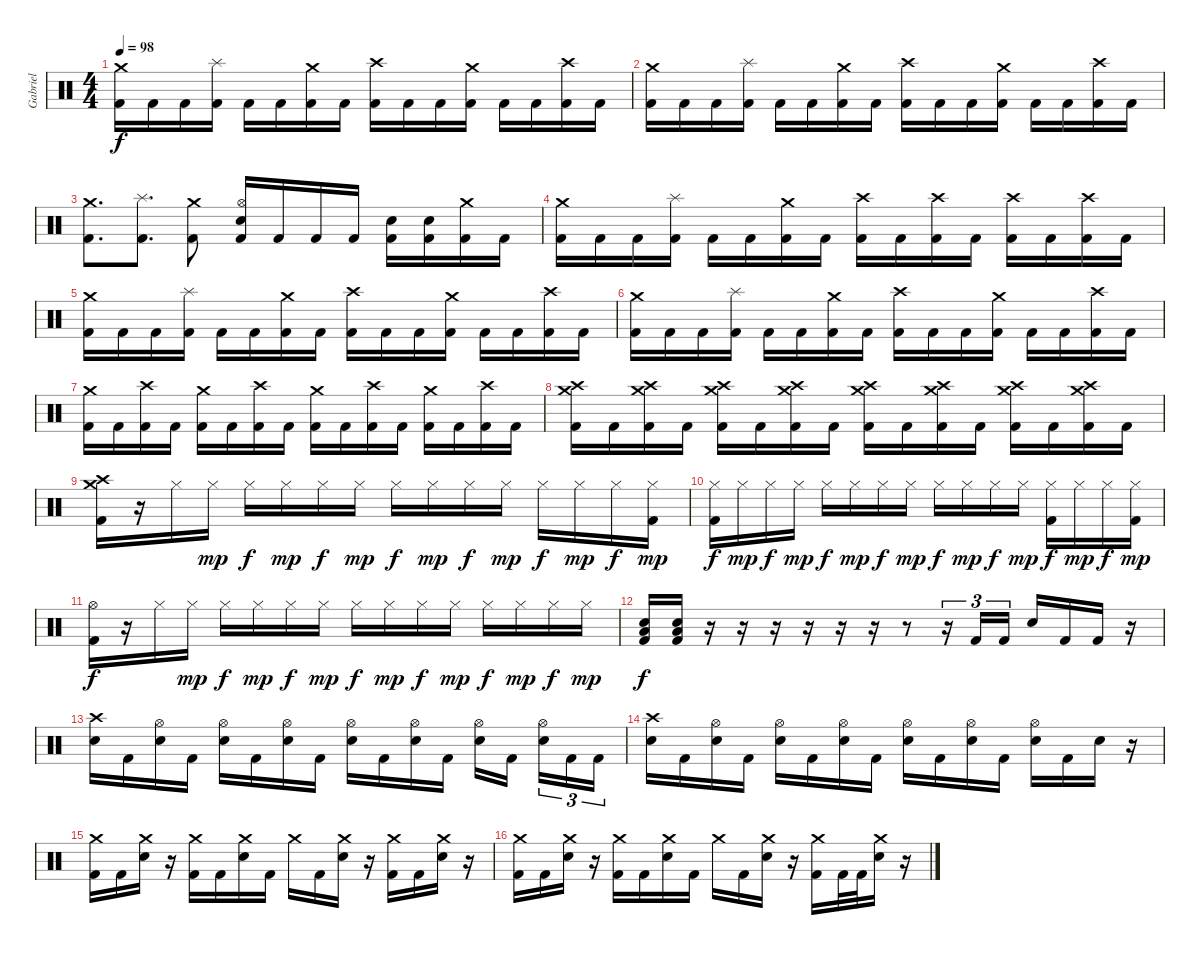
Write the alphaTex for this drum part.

\track ("Gabriel" "Gabriel") {instrument percussion}
\staff {score}
\articulation defaults
\ts (4 4)
\tempo 98
\clef neutral
\ks c
("Crash medium (hit)" "Kick (hit) 2").16{dy f} "Kick (hit) 2".16 "Kick (hit) 2".16 ("Splash (hit)" "Kick (hit) 2").16 "Kick (hit) 2".16 "Kick (hit) 2".16 ("Crash medium (hit)" "Kick (hit) 2").16 "Kick (hit) 2".16 ("Crash high (hit)" "Kick (hit) 2").16 "Kick (hit) 2".16 "Kick (hit) 2".16 ("Crash medium (hit)" "Kick (hit) 2").16 "Kick (hit) 2".16 "Kick (hit) 2".16 ("Crash high (hit)" "Kick (hit) 2").16 "Kick (hit) 2".16 |
("Crash medium (hit)" "Kick (hit) 2").16 "Kick (hit) 2".16 "Kick (hit) 2".16 ("Splash (hit)" "Kick (hit) 2").16 "Kick (hit) 2".16 "Kick (hit) 2".16 ("Crash medium (hit)" "Kick (hit) 2").16 "Kick (hit) 2".16 ("Crash high (hit)" "Kick (hit) 2").16 "Kick (hit) 2".16 "Kick (hit) 2".16 ("Crash medium (hit)" "Kick (hit) 2").16 "Kick (hit) 2".16 "Kick (hit) 2".16 ("Crash high (hit)" "Kick (hit) 2").16 "Kick (hit) 2".16 |
("Crash medium (hit)" "Kick (hit) 2").8{d} ("Splash (hit)" "Kick (hit) 2").8{d} ("Crash medium (hit)" "Kick (hit) 2").8 ("Hi-Hat (open)" "Electric Snare (hit)" "Kick (hit) 2").16 "Kick (hit) 2".16 "Kick (hit) 2".16 "Kick (hit) 2".16 ("Electric Snare (hit)" "Kick (hit) 2").16 ("Electric Snare (hit)" "Kick (hit) 2").16 ("Crash medium (hit)" "Kick (hit) 2").16 "Kick (hit) 2".16 |
("Crash medium (hit)" "Kick (hit) 2").16 "Kick (hit) 2".16 "Kick (hit) 2".16 ("Splash (hit)" "Kick (hit) 2").16 "Kick (hit) 2".16 "Kick (hit) 2".16 ("Crash medium (hit)" "Kick (hit) 2").16 "Kick (hit) 2".16 ("Crash high (hit)" "Kick (hit) 2").16 "Kick (hit) 2".16 ("Crash high (hit)" "Kick (hit) 2").16 "Kick (hit) 2".16 ("Crash high (hit)" "Kick (hit) 2").16 "Kick (hit) 2".16 ("Crash high (hit)" "Kick (hit) 2").16 "Kick (hit) 2".16 |
("Crash medium (hit)" "Kick (hit) 2").16 "Kick (hit) 2".16 "Kick (hit) 2".16 ("Splash (hit)" "Kick (hit) 2").16 "Kick (hit) 2".16 "Kick (hit) 2".16 ("Crash medium (hit)" "Kick (hit) 2").16 "Kick (hit) 2".16 ("Crash high (hit)" "Kick (hit) 2").16 "Kick (hit) 2".16 "Kick (hit) 2".16 ("Crash medium (hit)" "Kick (hit) 2").16 "Kick (hit) 2".16 "Kick (hit) 2".16 ("Crash high (hit)" "Kick (hit) 2").16 "Kick (hit) 2".16 |
("Crash medium (hit)" "Kick (hit) 2").16 "Kick (hit) 2".16 "Kick (hit) 2".16 ("Splash (hit)" "Kick (hit) 2").16 "Kick (hit) 2".16 "Kick (hit) 2".16 ("Crash medium (hit)" "Kick (hit) 2").16 "Kick (hit) 2".16 ("Crash high (hit)" "Kick (hit) 2").16 "Kick (hit) 2".16 "Kick (hit) 2".16 ("Crash medium (hit)" "Kick (hit) 2").16 "Kick (hit) 2".16 "Kick (hit) 2".16 ("Crash high (hit)" "Kick (hit) 2").16 "Kick (hit) 2".16 |
("Crash medium (hit)" "Kick (hit) 2").16 "Kick (hit) 2".16 ("Crash high (hit)" "Kick (hit) 2").16 "Kick (hit) 2".16 ("Crash medium (hit)" "Kick (hit) 2").16 "Kick (hit) 2".16 ("Crash high (hit)" "Kick (hit) 2").16 "Kick (hit) 2".16 ("Crash medium (hit)" "Kick (hit) 2").16 "Kick (hit) 2".16 ("Crash high (hit)" "Kick (hit) 2").16 "Kick (hit) 2".16 ("Crash medium (hit)" "Kick (hit) 2").16 "Kick (hit) 2".16 ("Crash high (hit)" "Kick (hit) 2").16 "Kick (hit) 2".16 |
("Crash medium (hit)" "Crash high (hit)" "Kick (hit) 2").16 "Kick (hit) 2".16 ("Crash high (hit)" "Crash medium (hit)" "Kick (hit) 2").16 "Kick (hit) 2".16 ("Crash medium (hit)" "Crash high (hit)" "Kick (hit) 2").16 "Kick (hit) 2".16 ("Crash high (hit)" "Crash medium (hit)" "Kick (hit) 2").16 "Kick (hit) 2".16 ("Crash medium (hit)" "Crash high (hit)" "Kick (hit) 2").16 "Kick (hit) 2".16 ("Crash high (hit)" "Crash medium (hit)" "Kick (hit) 2").16 "Kick (hit) 2".16 ("Crash medium (hit)" "Crash high (hit)" "Kick (hit) 2").16 "Kick (hit) 2".16 ("Crash high (hit)" "Crash medium (hit)" "Kick (hit) 2").16 "Kick (hit) 2".16 |
("Crash high (hit)" "Crash medium (hit)" "Kick (hit) 2").16 r.16 "Hi-Hat (closed)".16 "Hi-Hat (closed)".16{dy mp} "Hi-Hat (closed)".16{dy f} "Hi-Hat (closed)".16{dy mp} "Hi-Hat (closed)".16{dy f} "Hi-Hat (closed)".16{dy mp} "Hi-Hat (closed)".16{dy f} "Hi-Hat (closed)".16{dy mp} "Hi-Hat (closed)".16{dy f} "Hi-Hat (closed)".16{dy mp} "Hi-Hat (closed)".16{dy f} "Hi-Hat (closed)".16{dy mp} "Hi-Hat (closed)".16{dy f} ("Hi-Hat (closed)" "Kick (hit) 2").16{dy mp} |
("Hi-Hat (closed)" "Kick (hit) 2").16{dy f} "Hi-Hat (closed)".16{dy mp} "Hi-Hat (closed)".16{dy f} "Hi-Hat (closed)".16{dy mp} "Hi-Hat (closed)".16{dy f} "Hi-Hat (closed)".16{dy mp} "Hi-Hat (closed)".16{dy f} "Hi-Hat (closed)".16{dy mp} "Hi-Hat (closed)".16{dy f} "Hi-Hat (closed)".16{dy mp} "Hi-Hat (closed)".16{dy f} "Hi-Hat (closed)".16{dy mp} ("Hi-Hat (closed)" "Kick (hit) 2").16{dy f} "Hi-Hat (closed)".16{dy mp} "Hi-Hat (closed)".16{dy f} ("Hi-Hat (closed)" "Kick (hit) 2").16{dy mp} |
("Hi-Hat (open)" "Kick (hit) 2").16{dy f} r.16 "Hi-Hat (closed)".16 "Hi-Hat (closed)".16{dy mp} "Hi-Hat (closed)".16{dy f} "Hi-Hat (closed)".16{dy mp} "Hi-Hat (closed)".16{dy f} "Hi-Hat (closed)".16{dy mp} "Hi-Hat (closed)".16{dy f} "Hi-Hat (closed)".16{dy mp} "Hi-Hat (closed)".16{dy f} "Hi-Hat (closed)".16{dy mp} "Hi-Hat (closed)".16{dy f} "Hi-Hat (closed)".16{dy mp} "Hi-Hat (closed)".16{dy f} "Hi-Hat (closed)".16{dy mp} |
("Low Tom (hit)" "Electric Snare (hit)" "Kick (hit) 2").16{dy f} ("Low Tom (hit)" "Electric Snare (hit)" "Kick (hit) 2").16 r.16 r.16 r.16 r.16 r.16 r.16 r.8 r.16{tu (3 2)} "Kick (hit) 2".16{tu (3 2)} "Kick (hit) 2".16{tu (3 2)} "Electric Snare (hit)".16 "Kick (hit) 2".16 "Kick (hit) 2".16 r.16 |
("Crash high (hit)" "Electric Snare (hit)").16 "Kick (hit) 2".16 ("Hi-Hat (open)" "Electric Snare (hit)").16 "Kick (hit) 2".16 ("Hi-Hat (open)" "Electric Snare (hit)").16 "Kick (hit) 2".16 ("Hi-Hat (open)" "Electric Snare (hit)").16 "Kick (hit) 2".16 ("Hi-Hat (open)" "Electric Snare (hit)").16 "Kick (hit) 2".16 ("Hi-Hat (open)" "Electric Snare (hit)").16 "Kick (hit) 2".16 ("Hi-Hat (open)" "Electric Snare (hit)").16 "Kick (hit) 2".16{beam splitsecondary} ("Hi-Hat (open)" "Electric Snare (hit)").16{tu (3 2)} "Kick (hit) 2".16{tu (3 2)} "Kick (hit) 2".16{tu (3 2)} |
("Crash high (hit)" "Electric Snare (hit)").16 "Kick (hit) 2".16 ("Hi-Hat (open)" "Electric Snare (hit)").16 "Kick (hit) 2".16 ("Hi-Hat (open)" "Electric Snare (hit)").16 "Kick (hit) 2".16 ("Hi-Hat (open)" "Electric Snare (hit)").16 "Kick (hit) 2".16 ("Hi-Hat (open)" "Electric Snare (hit)").16 "Kick (hit) 2".16 ("Hi-Hat (open)" "Electric Snare (hit)").16 "Kick (hit) 2".16 ("Hi-Hat (open)" "Electric Snare (hit)").16 "Kick (hit) 2".16 "Electric Snare (hit)".16 r.16 |
("Crash medium (hit)" "Kick (hit) 2").16 "Kick (hit) 2".16 ("Crash medium (hit)" "Electric Snare (hit)").16 r.16 ("Crash medium (hit)" "Kick (hit) 2").16 "Kick (hit) 2".16 ("Crash medium (hit)" "Electric Snare (hit)").16 "Kick (hit) 2".16 "Crash medium (hit)".16 "Kick (hit) 2".16 ("Crash medium (hit)" "Electric Snare (hit)").16 r.16 ("Crash medium (hit)" "Kick (hit) 2").16 "Kick (hit) 2".16 ("Crash medium (hit)" "Electric Snare (hit)").16 r.16 |
("Crash medium (hit)" "Kick (hit) 2").16 "Kick (hit) 2".16 ("Crash medium (hit)" "Electric Snare (hit)").16 r.16 ("Crash medium (hit)" "Kick (hit) 2").16 "Kick (hit) 2".16 ("Crash medium (hit)" "Electric Snare (hit)").16 "Kick (hit) 2".16 "Crash medium (hit)".16 "Kick (hit) 2".16 ("Crash medium (hit)" "Electric Snare (hit)").16 r.16 ("Crash medium (hit)" "Kick (hit) 2").16 "Kick (hit) 2".32 "Kick (hit) 2".32 ("Crash medium (hit)" "Electric Snare (hit)").16 r.16
